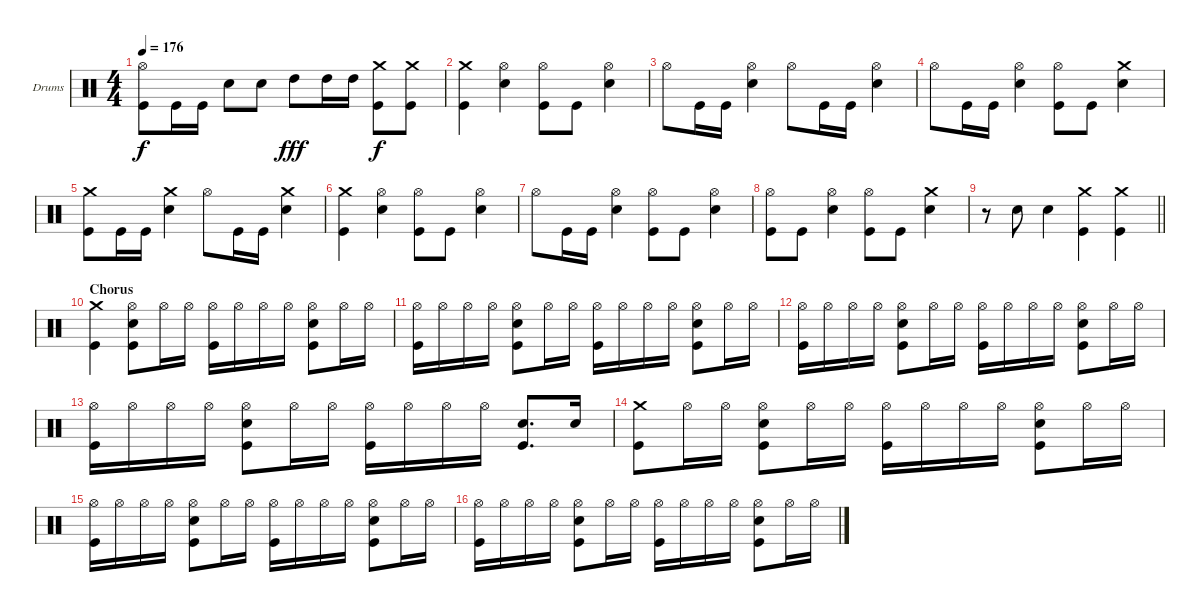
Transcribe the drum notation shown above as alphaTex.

\bracketExtendMode groupsimilarinstruments
\firstSystemTrackNameOrientation horizontal
\otherSystemsTrackNameOrientation horizontal
\track ("Drums" "Drums") {instrument percussion}
\staff {score}
\articulation defaults
\ts (4 4)
\tempo 176
\clef neutral
\ks c
("Hi-Hat (open)" "Kick (hit)").8{dy f} "Kick (hit)".16 "Kick (hit)".16 "Snare (hit) 2".8 "Snare (hit) 2".8 "High Tom (hit)".8{dy fff} "High Tom (hit)".16 "High Tom (hit)".16 ("Crash medium (hit)" "Kick (hit)").8{dy f} ("Crash medium (hit)" "Kick (hit)").8 |
("Crash medium (hit)" "Kick (hit)").4 ("Hi-Hat (open)" "Snare (hit) 2").4 ("Hi-Hat (open)" "Kick (hit)").8 "Kick (hit)".8 ("Hi-Hat (open)" "Snare (hit) 2").4 |
"Hi-Hat (open)".8 "Kick (hit)".16 "Kick (hit)".16 ("Hi-Hat (open)" "Snare (hit) 2").4 "Hi-Hat (open)".8 "Kick (hit)".16 "Kick (hit)".16 ("Hi-Hat (open)" "Snare (hit) 2").4 |
"Hi-Hat (open)".8 "Kick (hit)".16 "Kick (hit)".16 ("Hi-Hat (open)" "Snare (hit) 2").4 ("Hi-Hat (open)" "Kick (hit)").8 "Kick (hit)".8 ("Crash medium (hit)" "Snare (hit) 2").4 |
("Crash medium (hit)" "Kick (hit)").8 "Kick (hit)".16 "Kick (hit)".16 ("Crash medium (hit)" "Snare (hit) 2").4 "Hi-Hat (open)".8 "Kick (hit)".16 "Kick (hit)".16 ("Crash medium (hit)" "Snare (hit) 2").4 |
("Crash medium (hit)" "Kick (hit)").4 ("Hi-Hat (open)" "Snare (hit) 2").4 ("Hi-Hat (open)" "Kick (hit)").8 "Kick (hit)".8 ("Hi-Hat (open)" "Snare (hit) 2").4 |
"Hi-Hat (open)".8 "Kick (hit)".16 "Kick (hit)".16 ("Hi-Hat (open)" "Snare (hit) 2").4 ("Hi-Hat (open)" "Kick (hit)").8 "Kick (hit)".8 ("Hi-Hat (open)" "Snare (hit) 2").4 |
("Hi-Hat (open)" "Kick (hit)").8 "Kick (hit)".8 ("Hi-Hat (open)" "Snare (hit) 2").4 ("Hi-Hat (open)" "Kick (hit)").8 "Kick (hit)".8 ("Crash medium (hit)" "Snare (hit) 2").4 |
\barLineRight lightlight
r.8 "Snare (hit) 2".8 "Snare (hit) 2".4 ("Crash medium (hit)" "Kick (hit)").4 ("Crash medium (hit)" "Kick (hit)").4 |
\section ("" "Chorus")
("Crash medium (hit)" "Kick (hit)").4 ("Snare (hit) 2" "Kick (hit)" "Hi-Hat (open)").8 "Hi-Hat (open)".16 "Hi-Hat (open)".16 ("Kick (hit)" "Hi-Hat (open)").16 "Hi-Hat (open)".16 "Hi-Hat (open)".16 "Hi-Hat (open)".16 ("Snare (hit) 2" "Kick (hit)" "Hi-Hat (open)").8 "Hi-Hat (open)".16 "Hi-Hat (open)".16 |
("Kick (hit)" "Hi-Hat (open)").16 "Hi-Hat (open)".16 "Hi-Hat (open)".16 "Hi-Hat (open)".16 ("Snare (hit) 2" "Kick (hit)" "Hi-Hat (open)").8 "Hi-Hat (open)".16 "Hi-Hat (open)".16 ("Kick (hit)" "Hi-Hat (open)").16 "Hi-Hat (open)".16 "Hi-Hat (open)".16 "Hi-Hat (open)".16 ("Snare (hit) 2" "Kick (hit)" "Hi-Hat (open)").8 "Hi-Hat (open)".16 "Hi-Hat (open)".16 |
("Kick (hit)" "Hi-Hat (open)").16 "Hi-Hat (open)".16 "Hi-Hat (open)".16 "Hi-Hat (open)".16 ("Snare (hit) 2" "Kick (hit)" "Hi-Hat (open)").8 "Hi-Hat (open)".16 "Hi-Hat (open)".16 ("Kick (hit)" "Hi-Hat (open)").16 "Hi-Hat (open)".16 "Hi-Hat (open)".16 "Hi-Hat (open)".16 ("Snare (hit) 2" "Kick (hit)" "Hi-Hat (open)").8 "Hi-Hat (open)".16 "Hi-Hat (open)".16 |
("Kick (hit)" "Hi-Hat (open)").16 "Hi-Hat (open)".16 "Hi-Hat (open)".16 "Hi-Hat (open)".16 ("Snare (hit) 2" "Kick (hit)" "Hi-Hat (open)").8 "Hi-Hat (open)".16 "Hi-Hat (open)".16 ("Kick (hit)" "Hi-Hat (open)").16 "Hi-Hat (open)".16 "Hi-Hat (open)".16 "Hi-Hat (open)".16 ("Snare (hit) 2" "Kick (hit)").8{d} "Snare (hit) 2".16 |
("Crash medium (hit)" "Kick (hit)").8 "Hi-Hat (open)".16 "Hi-Hat (open)".16 ("Snare (hit) 2" "Kick (hit)" "Hi-Hat (open)").8 "Hi-Hat (open)".16 "Hi-Hat (open)".16 ("Kick (hit)" "Hi-Hat (open)").16 "Hi-Hat (open)".16 "Hi-Hat (open)".16 "Hi-Hat (open)".16 ("Snare (hit) 2" "Kick (hit)" "Hi-Hat (open)").8 "Hi-Hat (open)".16 "Hi-Hat (open)".16 |
("Kick (hit)" "Hi-Hat (open)").16 "Hi-Hat (open)".16 "Hi-Hat (open)".16 "Hi-Hat (open)".16 ("Snare (hit) 2" "Kick (hit)" "Hi-Hat (open)").8 "Hi-Hat (open)".16 "Hi-Hat (open)".16 ("Kick (hit)" "Hi-Hat (open)").16 "Hi-Hat (open)".16 "Hi-Hat (open)".16 "Hi-Hat (open)".16 ("Snare (hit) 2" "Kick (hit)" "Hi-Hat (open)").8 "Hi-Hat (open)".16 "Hi-Hat (open)".16 |
("Kick (hit)" "Hi-Hat (open)").16 "Hi-Hat (open)".16 "Hi-Hat (open)".16 "Hi-Hat (open)".16 ("Snare (hit) 2" "Kick (hit)" "Hi-Hat (open)").8 "Hi-Hat (open)".16 "Hi-Hat (open)".16 ("Kick (hit)" "Hi-Hat (open)").16 "Hi-Hat (open)".16 "Hi-Hat (open)".16 "Hi-Hat (open)".16 ("Snare (hit) 2" "Kick (hit)" "Hi-Hat (open)").8 "Hi-Hat (open)".16 "Hi-Hat (open)".16
